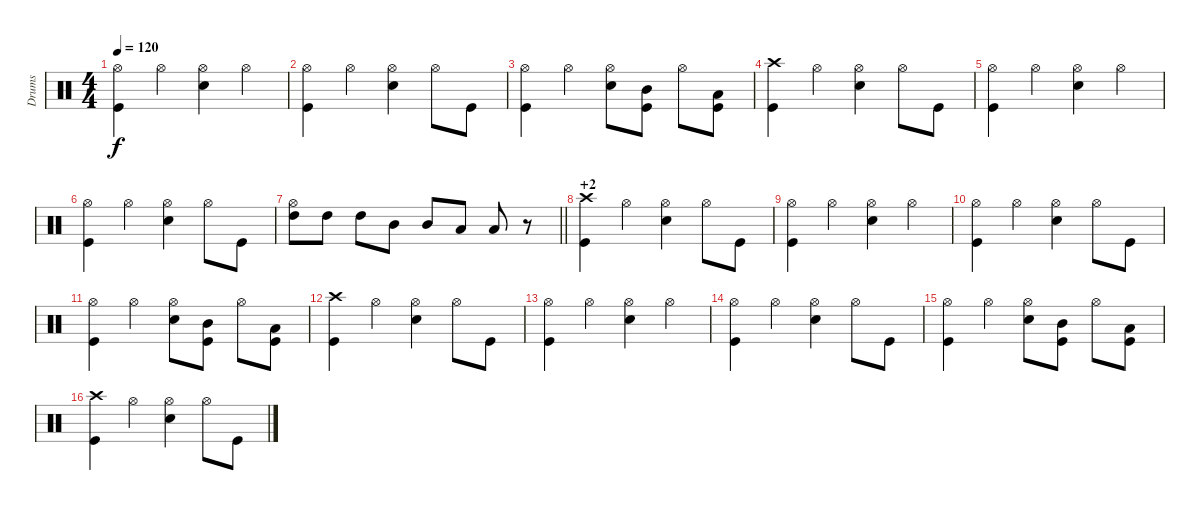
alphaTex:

\track ("Drums" "Drums") {instrument percussion}
\staff {score}
\articulation defaults
\ts (4 4)
\tempo 120
\clef neutral
\ks c
("Hi-Hat (open)" "Kick (hit)").4{dy f} "Hi-Hat (open)".4 ("Hi-Hat (open)" "Snare (hit) 2").4 "Hi-Hat (open)".4 |
("Hi-Hat (open)" "Kick (hit)").4 "Hi-Hat (open)".4 ("Hi-Hat (open)" "Snare (hit) 2").4 "Hi-Hat (open)".8 "Kick (hit)".8 |
("Hi-Hat (open)" "Kick (hit)").4 "Hi-Hat (open)".4 ("Hi-Hat (open)" "Snare (hit) 2").8 ("Mid Tom (hit)" "Kick (hit)").8 "Hi-Hat (open)".8 ("Low Tom (hit)" "Kick (hit)").8 |
("Crash high (hit)" "Kick (hit)").4 "Hi-Hat (open)".4 ("Hi-Hat (open)" "Snare (hit) 2").4 "Hi-Hat (open)".8 "Kick (hit)".8 |
("Hi-Hat (open)" "Kick (hit)").4 "Hi-Hat (open)".4 ("Hi-Hat (open)" "Snare (hit) 2").4 "Hi-Hat (open)".4 |
("Hi-Hat (open)" "Kick (hit)").4 "Hi-Hat (open)".4 ("Hi-Hat (open)" "Snare (hit) 2").4 "Hi-Hat (open)".8 "Kick (hit)".8 |
\barLineRight lightlight
("Hi-Hat (open)" "High Tom (hit)").8 "High Tom (hit)".8 "High Tom (hit)".8 "Mid Tom (hit)".8 "Mid Tom (hit)".8 "Low Tom (hit)".8 "Low Tom (hit)".8 r.8 |
\section ("" "+2")
("Crash high (hit)" "Kick (hit)").4 "Hi-Hat (open)".4 ("Hi-Hat (open)" "Snare (hit) 2").4 "Hi-Hat (open)".8 "Kick (hit)".8 |
("Hi-Hat (open)" "Kick (hit)").4 "Hi-Hat (open)".4 ("Hi-Hat (open)" "Snare (hit) 2").4 "Hi-Hat (open)".4 |
("Hi-Hat (open)" "Kick (hit)").4 "Hi-Hat (open)".4 ("Hi-Hat (open)" "Snare (hit) 2").4 "Hi-Hat (open)".8 "Kick (hit)".8 |
("Hi-Hat (open)" "Kick (hit)").4 "Hi-Hat (open)".4 ("Hi-Hat (open)" "Snare (hit) 2").8 ("Mid Tom (hit)" "Kick (hit)").8 "Hi-Hat (open)".8 ("Low Tom (hit)" "Kick (hit)").8 |
("Crash high (hit)" "Kick (hit)").4 "Hi-Hat (open)".4 ("Hi-Hat (open)" "Snare (hit) 2").4 "Hi-Hat (open)".8 "Kick (hit)".8 |
("Hi-Hat (open)" "Kick (hit)").4 "Hi-Hat (open)".4 ("Hi-Hat (open)" "Snare (hit) 2").4 "Hi-Hat (open)".4 |
("Hi-Hat (open)" "Kick (hit)").4 "Hi-Hat (open)".4 ("Hi-Hat (open)" "Snare (hit) 2").4 "Hi-Hat (open)".8 "Kick (hit)".8 |
("Hi-Hat (open)" "Kick (hit)").4 "Hi-Hat (open)".4 ("Hi-Hat (open)" "Snare (hit) 2").8 ("Mid Tom (hit)" "Kick (hit)").8 "Hi-Hat (open)".8 ("Low Tom (hit)" "Kick (hit)").8 |
("Crash high (hit)" "Kick (hit)").4 "Hi-Hat (open)".4 ("Hi-Hat (open)" "Snare (hit) 2").4 "Hi-Hat (open)".8 "Kick (hit)".8
